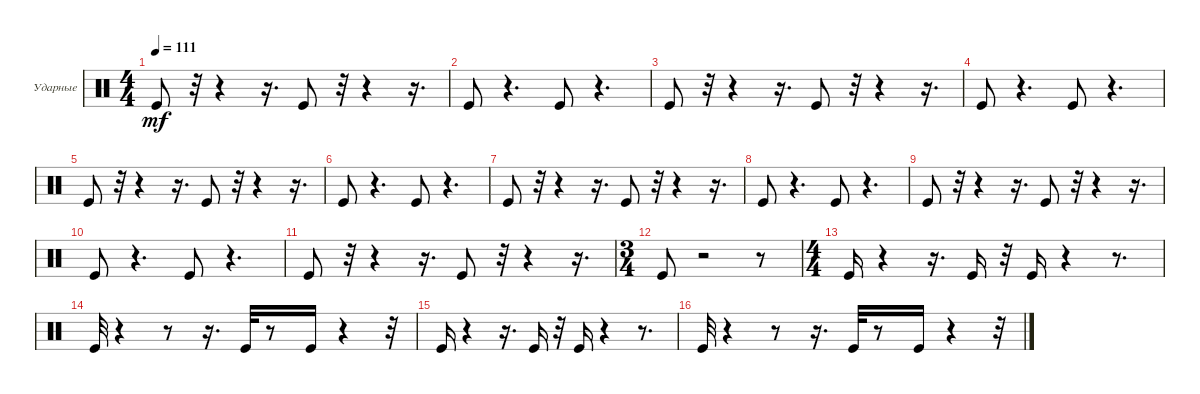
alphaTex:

\bracketExtendMode groupsimilarinstruments
\firstSystemTrackNameOrientation horizontal
\otherSystemsTrackNameOrientation horizontal
\track ("Ударные" "Ударные") {instrument percussion}
\staff {score}
\articulation defaults
\ts (4 4)
\tempo 111
\clef neutral
\ks c "Kick (hit)".8{dy mf}
r.32 r.4 r.16{d} "Kick (hit)".8 r.32 r.4 r.16{d} |
"Kick (hit)".8 r.4{d} "Kick (hit)".8 r.4{d} |
"Kick (hit)".8 r.32 r.4 r.16{d} "Kick (hit)".8 r.32 r.4 r.16{d} |
"Kick (hit)".8 r.4{d} "Kick (hit)".8 r.4{d} |
"Kick (hit)".8 r.32 r.4 r.16{d} "Kick (hit)".8 r.32 r.4 r.16{d} |
"Kick (hit)".8 r.4{d} "Kick (hit)".8 r.4{d} |
"Kick (hit)".8 r.32 r.4 r.16{d} "Kick (hit)".8 r.32 r.4 r.16{d} |
"Kick (hit)".8 r.4{d} "Kick (hit)".8 r.4{d} |
"Kick (hit)".8 r.32 r.4 r.16{d} "Kick (hit)".8 r.32 r.4 r.16{d} |
"Kick (hit)".8 r.4{d} "Kick (hit)".8 r.4{d} |
"Kick (hit)".8 r.32 r.4 r.16{d} "Kick (hit)".8 r.32 r.4 r.16{d} |
\ts (3 4)
"Kick (hit)".8 r.2 r.8 |
\ts (4 4)
"Kick (hit)".16 r.4 r.16{d} "Kick (hit)".16 r.32 "Kick (hit)".16 r.4 r.8{d} |
"Kick (hit)".32 r.4 r.8 r.16{d} "Kick (hit)".32 r.8 "Kick (hit)".16 r.4 r.32 |
"Kick (hit)".16 r.4 r.16{d} "Kick (hit)".16 r.32 "Kick (hit)".16 r.4 r.8{d} |
"Kick (hit)".32 r.4 r.8 r.16{d} "Kick (hit)".32 r.8 "Kick (hit)".16 r.4 r.32
